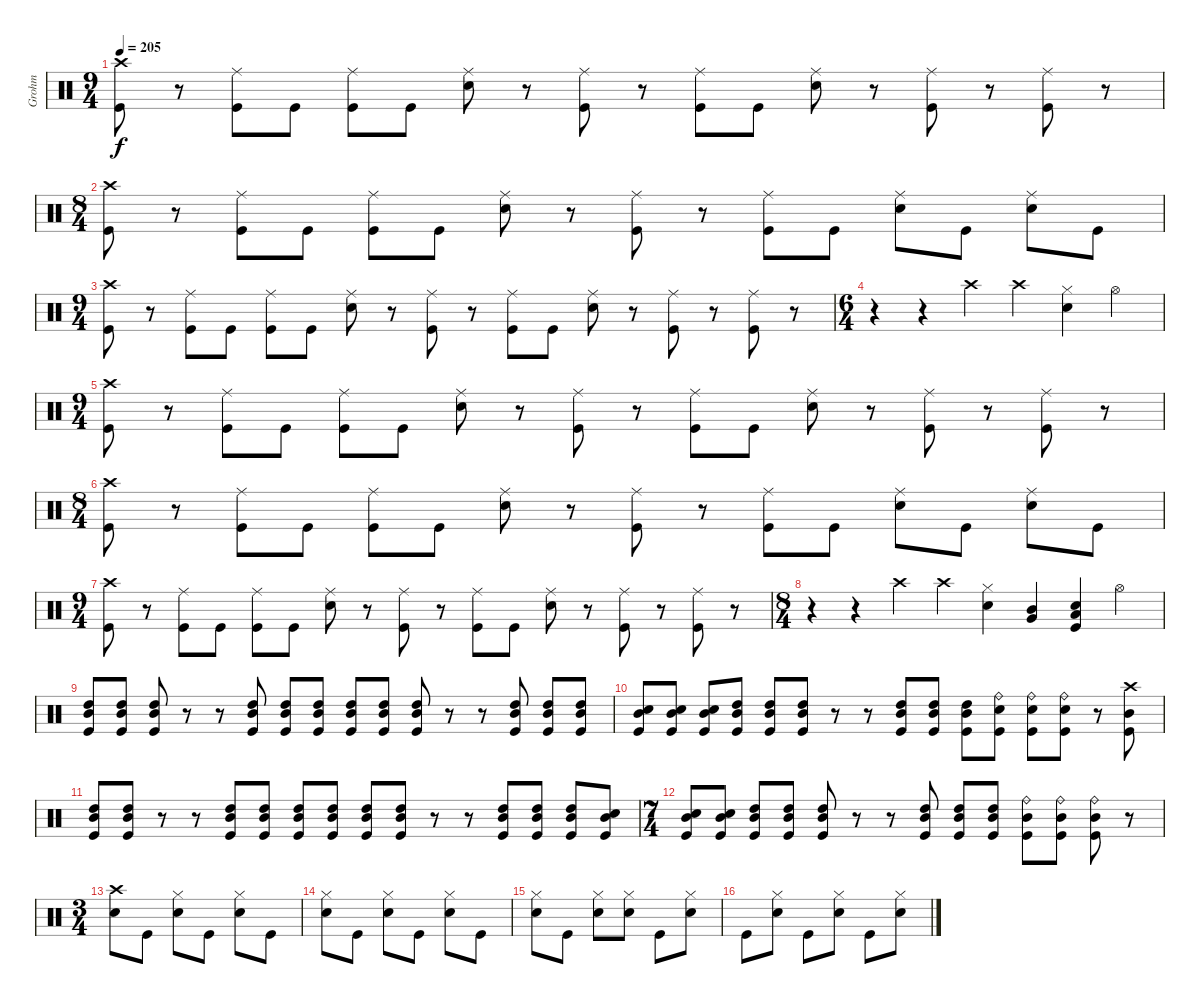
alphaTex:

\track ("Grohm" "Grohm") {instrument percussion}
\staff {score}
\articulation defaults
\ts (9 4)
\tempo 205
\clef neutral
\ks c
("Crash high (hit)" "Kick (hit)").8{dy f} r.8 ("Ride (middle)" "Kick (hit)").8 "Kick (hit)".8 ("Ride (middle)" "Kick (hit)").8 "Kick (hit)".8 ("Ride (middle)" "Snare (hit) 2").8 r.8 ("Ride (middle)" "Kick (hit)").8 r.8 ("Ride (middle)" "Kick (hit)").8 "Kick (hit)".8 ("Ride (middle)" "Snare (hit) 2").8 r.8 ("Ride (middle)" "Kick (hit)").8 r.8 ("Ride (middle)" "Kick (hit)").8 r.8 |
\ts (8 4)
("Crash high (hit)" "Kick (hit)").8 r.8 ("Ride (middle)" "Kick (hit)").8 "Kick (hit)".8 ("Ride (middle)" "Kick (hit)").8 "Kick (hit)".8 ("Ride (middle)" "Snare (hit) 2").8 r.8 ("Ride (middle)" "Kick (hit)").8 r.8 ("Ride (middle)" "Kick (hit)").8 "Kick (hit)".8 ("Ride (middle)" "Snare (hit) 2").8 "Kick (hit)".8 ("Ride (middle)" "Snare (hit) 2").8 "Kick (hit)".8 |
\ts (9 4)
("Crash high (hit)" "Kick (hit)").8 r.8 ("Ride (middle)" "Kick (hit)").8 "Kick (hit)".8 ("Ride (middle)" "Kick (hit)").8 "Kick (hit)".8 ("Ride (middle)" "Snare (hit) 2").8 r.8 ("Ride (middle)" "Kick (hit)").8 r.8 ("Ride (middle)" "Kick (hit)").8 "Kick (hit)".8 ("Ride (middle)" "Snare (hit) 2").8 r.8 ("Ride (middle)" "Kick (hit)").8 r.8 ("Ride (middle)" "Kick (hit)").8 r.8 |
\ts (6 4)
r.4 r.4 "Crash high (hit)".4 "Crash high (hit)".4 ("Hi-Hat (closed)" "Snare (hit) 2").4 "Hi-Hat (open)".4 |
\ts (9 4)
("Crash high (hit)" "Kick (hit)").8 r.8 ("Ride (middle)" "Kick (hit)").8 "Kick (hit)".8 ("Ride (middle)" "Kick (hit)").8 "Kick (hit)".8 ("Ride (middle)" "Snare (hit) 2").8 r.8 ("Ride (middle)" "Kick (hit)").8 r.8 ("Ride (middle)" "Kick (hit)").8 "Kick (hit)".8 ("Ride (middle)" "Snare (hit) 2").8 r.8 ("Ride (middle)" "Kick (hit)").8 r.8 ("Ride (middle)" "Kick (hit)").8 r.8 |
\ts (8 4)
("Crash high (hit)" "Kick (hit)").8 r.8 ("Ride (middle)" "Kick (hit)").8 "Kick (hit)".8 ("Ride (middle)" "Kick (hit)").8 "Kick (hit)".8 ("Ride (middle)" "Snare (hit) 2").8 r.8 ("Ride (middle)" "Kick (hit)").8 r.8 ("Ride (middle)" "Kick (hit)").8 "Kick (hit)".8 ("Ride (middle)" "Snare (hit) 2").8 "Kick (hit)".8 ("Ride (middle)" "Snare (hit) 2").8 "Kick (hit)".8 |
\ts (9 4)
("Crash high (hit)" "Kick (hit)").8 r.8 ("Ride (middle)" "Kick (hit)").8 "Kick (hit)".8 ("Ride (middle)" "Kick (hit)").8 "Kick (hit)".8 ("Ride (middle)" "Snare (hit) 2").8 r.8 ("Ride (middle)" "Kick (hit)").8 r.8 ("Ride (middle)" "Kick (hit)").8 "Kick (hit)".8 ("Ride (middle)" "Snare (hit) 2").8 r.8 ("Ride (middle)" "Kick (hit)").8 r.8 ("Ride (middle)" "Kick (hit)").8 r.8 |
\ts (8 4)
r.4 r.4 "Crash high (hit)".4 "Crash high (hit)".4 ("Hi-Hat (closed)" "Snare (hit) 2").4 ("Mid Tom (hit)" "Very Low Tom (hit)").4 ("Snare (hit) 2" "Low Tom (hit)" "Kick (hit)").4 "Hi-Hat (open)".4 |
("High Tom (hit)" "Mid Tom (hit)" "Kick (hit)").8 ("High Tom (hit)" "Mid Tom (hit)" "Kick (hit)").8 ("High Tom (hit)" "Mid Tom (hit)" "Kick (hit)").8 r.8 r.8 ("High Tom (hit)" "Mid Tom (hit)" "Kick (hit)").8 ("High Tom (hit)" "Mid Tom (hit)" "Kick (hit)").8 ("High Tom (hit)" "Mid Tom (hit)" "Kick (hit)").8 ("High Tom (hit)" "Mid Tom (hit)" "Kick (hit)").8 ("High Tom (hit)" "Mid Tom (hit)" "Kick (hit)").8 ("High Tom (hit)" "Mid Tom (hit)" "Kick (hit)").8 r.8 r.8 ("High Tom (hit)" "Mid Tom (hit)" "Kick (hit)").8 ("High Tom (hit)" "Mid Tom (hit)" "Kick (hit)").8 ("High Tom (hit)" "Mid Tom (hit)" "Kick (hit)").8 |
("Snare (hit) 2" "Mid Tom (hit)" "Kick (hit)").8 ("Snare (hit) 2" "Mid Tom (hit)" "Kick (hit)").8 ("Snare (hit) 2" "Mid Tom (hit)" "Kick (hit)").8 ("High Tom (hit)" "Mid Tom (hit)" "Kick (hit)").8 ("High Tom (hit)" "Mid Tom (hit)" "Kick (hit)").8 ("High Tom (hit)" "Mid Tom (hit)" "Kick (hit)").8 r.8 r.8 ("High Tom (hit)" "Mid Tom (hit)" "Kick (hit)").8 ("High Tom (hit)" "Mid Tom (hit)" "Kick (hit)").8 ("High Tom (hit)" "Mid Tom (hit)" "Kick (hit)").8 ("Ride (bell)" "Snare (hit) 2" "Kick (hit)").8 ("Ride (bell)" "Snare (hit) 2" "Kick (hit)").8 ("Ride (bell)" "Snare (hit) 2" "Kick (hit)").8 r.8 ("Crash high (hit)" "Mid Tom (hit)" "Kick (hit)").8 |
("High Tom (hit)" "Mid Tom (hit)" "Kick (hit)").8 ("High Tom (hit)" "Mid Tom (hit)" "Kick (hit)").8 r.8 r.8 ("High Tom (hit)" "Mid Tom (hit)" "Kick (hit)").8 ("High Tom (hit)" "Mid Tom (hit)" "Kick (hit)").8 ("High Tom (hit)" "Mid Tom (hit)" "Kick (hit)").8 ("High Tom (hit)" "Mid Tom (hit)" "Kick (hit)").8 ("High Tom (hit)" "Mid Tom (hit)" "Kick (hit)").8 ("High Tom (hit)" "Mid Tom (hit)" "Kick (hit)").8 r.8 r.8 ("High Tom (hit)" "Mid Tom (hit)" "Kick (hit)").8 ("High Tom (hit)" "Mid Tom (hit)" "Kick (hit)").8 ("High Tom (hit)" "Mid Tom (hit)" "Kick (hit)").8 ("Snare (hit) 2" "Mid Tom (hit)" "Kick (hit)").8 |
\ts (7 4)
("Snare (hit) 2" "Mid Tom (hit)" "Kick (hit)").8 ("Snare (hit) 2" "Mid Tom (hit)" "Kick (hit)").8 ("High Tom (hit)" "Mid Tom (hit)" "Kick (hit)").8 ("High Tom (hit)" "Mid Tom (hit)" "Kick (hit)").8 ("High Tom (hit)" "Mid Tom (hit)" "Kick (hit)").8 r.8 r.8 ("High Tom (hit)" "Mid Tom (hit)" "Kick (hit)").8 ("High Tom (hit)" "Mid Tom (hit)" "Kick (hit)").8 ("High Tom (hit)" "Mid Tom (hit)" "Kick (hit)").8 ("Ride (bell)" "Mid Tom (hit)" "Kick (hit)").8 ("Ride (bell)" "Mid Tom (hit)" "Kick (hit)").8 ("Ride (bell)" "Mid Tom (hit)" "Kick (hit)").8 r.8 |
\ts (3 4)
("Crash high (hit)" "Snare (hit) 2").8 "Kick (hit)".8 ("Hi-Hat (closed)" "Snare (hit) 2").8 "Kick (hit)".8 ("Hi-Hat (closed)" "Snare (hit) 2").8 "Kick (hit)".8 |
("Hi-Hat (closed)" "Snare (hit) 2").8 "Kick (hit)".8 ("Hi-Hat (closed)" "Snare (hit) 2").8 "Kick (hit)".8 ("Hi-Hat (closed)" "Snare (hit) 2").8 "Kick (hit)".8 |
("Hi-Hat (closed)" "Snare (hit) 2").8 "Kick (hit)".8 ("Hi-Hat (closed)" "Snare (hit) 2").8 ("Hi-Hat (closed)" "Snare (hit) 2").8 "Kick (hit)".8 ("Hi-Hat (closed)" "Snare (hit) 2").8 |
"Kick (hit)".8 ("Hi-Hat (closed)" "Snare (hit) 2").8 "Kick (hit)".8 ("Hi-Hat (closed)" "Snare (hit) 2").8 "Kick (hit)".8 ("Hi-Hat (closed)" "Snare (hit) 2").8
